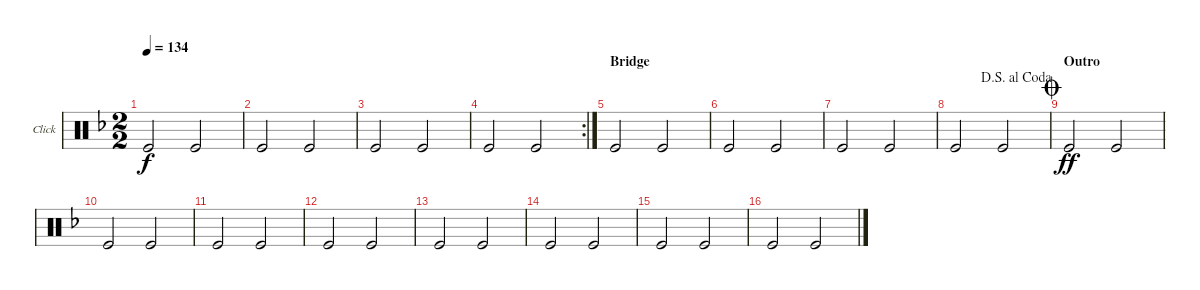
\bracketExtendMode groupsimilarinstruments
\useSystemSignSeparator
\multiTrackTrackNamePolicy allsystems
\firstSystemTrackNameOrientation horizontal
\otherSystemsTrackNameOrientation horizontal
\track ("Click" "Click") {instrument percussion}
\staff {score}
\articulation defaults
\ts (2 2)
\scale
0.5
\tempo 134
\accidentals auto
\clef neutral
\ottava regular
\simile none
\scale
0.244681
\ks f "Kick (hit)".2{dy f} "Kick (hit)".2
|
\scale
0.5
\scale
0.244681 "Kick (hit)".2 "Kick (hit)".2 |
\scale
0.38961
\scale
0.244681 "Kick (hit)".2 "Kick (hit)".2 |
\rc 2
\scale
0.61039
\scale
0.265957 "Kick (hit)".2 "Kick (hit)".2 |
\section ("" "Bridge")
\scale
0.5
\scale
0.25 "Kick (hit)".2 "Kick (hit)".2 |
\scale
0.5
\scale
0.25 "Kick (hit)".2 "Kick (hit)".2 |
\scale
0.416667
\scale
0.25 "Kick (hit)".2 "Kick (hit)".2 |
\scale
0.583333
\jump dalsegnoalcoda
\scale
0.25 "Kick (hit)".2 "Kick (hit)".2 |
\section ("" "Outro")
\scale
0.5
\jump coda
\scale
0.304598 "Kick (hit)".2{dy ff} "Kick (hit)".2 |
\scale
0.5
\scale
0.195402 "Kick (hit)".2 "Kick (hit)".2 |
\scale
0.38961
\scale
0.25 "Kick (hit)".2 "Kick (hit)".2 |
\scale
0.61039
\scale
0.25 "Kick (hit)".2 "Kick (hit)".2 |
\scale
0.5
\scale
0.25 "Kick (hit)".2 "Kick (hit)".2 |
\scale
0.5
\scale
0.25 "Kick (hit)".2 "Kick (hit)".2 |
\scale
0.5
\scale
0.25 "Kick (hit)".2 "Kick (hit)".2 |
\scale
0.5
\scale
0.25 "Kick (hit)".2 "Kick (hit)".2
